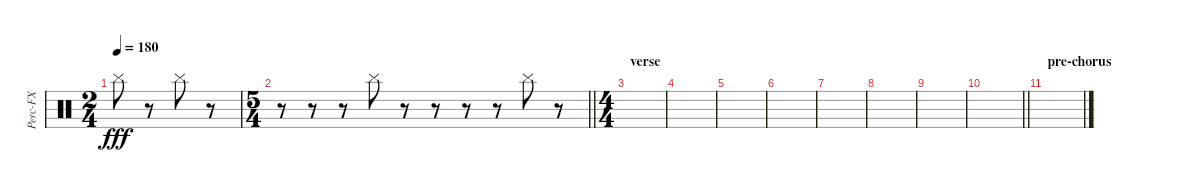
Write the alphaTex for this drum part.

\track ("Perc-FX" "Perc-FX") {instrument percussion}
\staff {score}
\articulation defaults
\ts (2 4)
\tempo 180
\clef neutral
\ks c "Cymbal (hit)".8{dy fff}
r.8 "Cymbal (hit)".8 r.8 |
\ts (5 4)
\barLineRight lightlight
r.8 r.8 r.8 "Cymbal (hit)".8 r.8 r.8 r.8 r.8 "Cymbal (hit)".8 r.8 |
\ts (4 4)
\section ("" "verse")
|
|
|
|
|
|
|
\barLineRight lightlight
|
\section ("" "pre-chorus")
